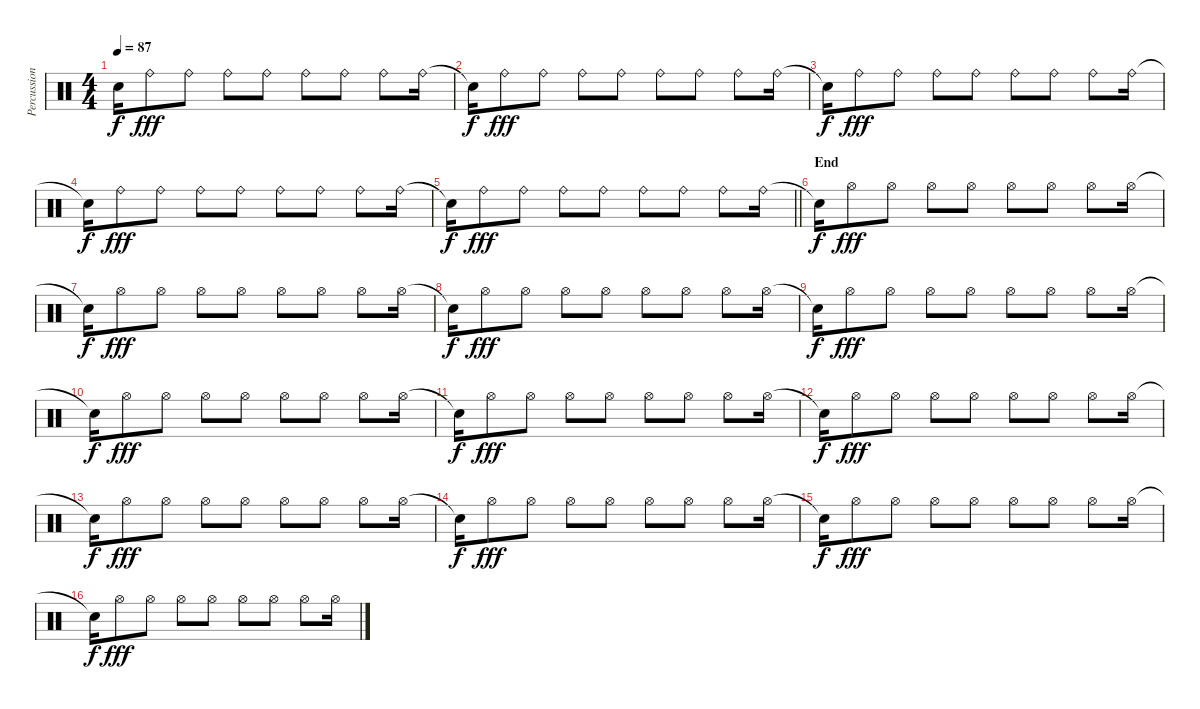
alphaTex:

\track ("Percussion" "Percussion") {instrument percussion}
\staff {score}
\articulation defaults
\ts (4 4)
\tempo 87
\clef neutral
\ks c "Snare (hit)"{t}.16{dy f} "Ride (bell)".8{dy fff} "Ride (bell)".8 "Ride (bell)".8 "Ride (bell)".8 "Ride (bell)".8 "Ride (bell)".8 "Ride (bell)".8 "Ride (bell)".16
|
"Snare (hit)"{t}.16{dy f} "Ride (bell)".8{dy fff} "Ride (bell)".8 "Ride (bell)".8 "Ride (bell)".8 "Ride (bell)".8 "Ride (bell)".8 "Ride (bell)".8 "Ride (bell)".16 |
"Snare (hit)"{t}.16{dy f} "Ride (bell)".8{dy fff} "Ride (bell)".8 "Ride (bell)".8 "Ride (bell)".8 "Ride (bell)".8 "Ride (bell)".8 "Ride (bell)".8 "Ride (bell)".16 |
"Snare (hit)"{t}.16{dy f} "Ride (bell)".8{dy fff} "Ride (bell)".8 "Ride (bell)".8 "Ride (bell)".8 "Ride (bell)".8 "Ride (bell)".8 "Ride (bell)".8 "Ride (bell)".16 |
\barLineRight lightlight "Snare (hit)"{t}.16{dy f} "Ride (bell)".8{dy fff} "Ride (bell)".8 "Ride (bell)".8 "Ride (bell)".8 "Ride (bell)".8 "Ride (bell)".8 "Ride (bell)".8 "Ride (bell)".16
|
\section ("" "End")
"Snare (hit)"{t}.16{dy f} "Hi-Hat (open)".8{dy fff} "Hi-Hat (open)".8 "Hi-Hat (open)".8 "Hi-Hat (open)".8 "Hi-Hat (open)".8 "Hi-Hat (open)".8 "Hi-Hat (open)".8 "Hi-Hat (open)".16 |
"Snare (hit)"{t}.16{dy f} "Hi-Hat (open)".8{dy fff} "Hi-Hat (open)".8 "Hi-Hat (open)".8 "Hi-Hat (open)".8 "Hi-Hat (open)".8 "Hi-Hat (open)".8 "Hi-Hat (open)".8 "Hi-Hat (open)".16 |
"Snare (hit)"{t}.16{dy f} "Hi-Hat (open)".8{dy fff} "Hi-Hat (open)".8 "Hi-Hat (open)".8 "Hi-Hat (open)".8 "Hi-Hat (open)".8 "Hi-Hat (open)".8 "Hi-Hat (open)".8 "Hi-Hat (open)".16 |
"Snare (hit)"{t}.16{dy f} "Hi-Hat (open)".8{dy fff} "Hi-Hat (open)".8 "Hi-Hat (open)".8 "Hi-Hat (open)".8 "Hi-Hat (open)".8 "Hi-Hat (open)".8 "Hi-Hat (open)".8 "Hi-Hat (open)".16 |
"Snare (hit)"{t}.16{dy f} "Hi-Hat (open)".8{dy fff} "Hi-Hat (open)".8 "Hi-Hat (open)".8 "Hi-Hat (open)".8 "Hi-Hat (open)".8 "Hi-Hat (open)".8 "Hi-Hat (open)".8 "Hi-Hat (open)".16 |
"Snare (hit)"{t}.16{dy f} "Hi-Hat (open)".8{dy fff} "Hi-Hat (open)".8 "Hi-Hat (open)".8 "Hi-Hat (open)".8 "Hi-Hat (open)".8 "Hi-Hat (open)".8 "Hi-Hat (open)".8 "Hi-Hat (open)".16 |
"Snare (hit)"{t}.16{dy f} "Hi-Hat (open)".8{dy fff} "Hi-Hat (open)".8 "Hi-Hat (open)".8 "Hi-Hat (open)".8 "Hi-Hat (open)".8 "Hi-Hat (open)".8 "Hi-Hat (open)".8 "Hi-Hat (open)".16 |
"Snare (hit)"{t}.16{dy f} "Hi-Hat (open)".8{dy fff} "Hi-Hat (open)".8 "Hi-Hat (open)".8 "Hi-Hat (open)".8 "Hi-Hat (open)".8 "Hi-Hat (open)".8 "Hi-Hat (open)".8 "Hi-Hat (open)".16 |
"Snare (hit)"{t}.16{dy f} "Hi-Hat (open)".8{dy fff} "Hi-Hat (open)".8 "Hi-Hat (open)".8 "Hi-Hat (open)".8 "Hi-Hat (open)".8 "Hi-Hat (open)".8 "Hi-Hat (open)".8 "Hi-Hat (open)".16 |
"Snare (hit)"{t}.16{dy f} "Hi-Hat (open)".8{dy fff} "Hi-Hat (open)".8 "Hi-Hat (open)".8 "Hi-Hat (open)".8 "Hi-Hat (open)".8 "Hi-Hat (open)".8 "Hi-Hat (open)".8 "Hi-Hat (open)".16 |
"Snare (hit)"{t}.16{dy f} "Hi-Hat (open)".8{dy fff} "Hi-Hat (open)".8 "Hi-Hat (open)".8 "Hi-Hat (open)".8 "Hi-Hat (open)".8 "Hi-Hat (open)".8 "Hi-Hat (open)".8 "Hi-Hat (open)".16
